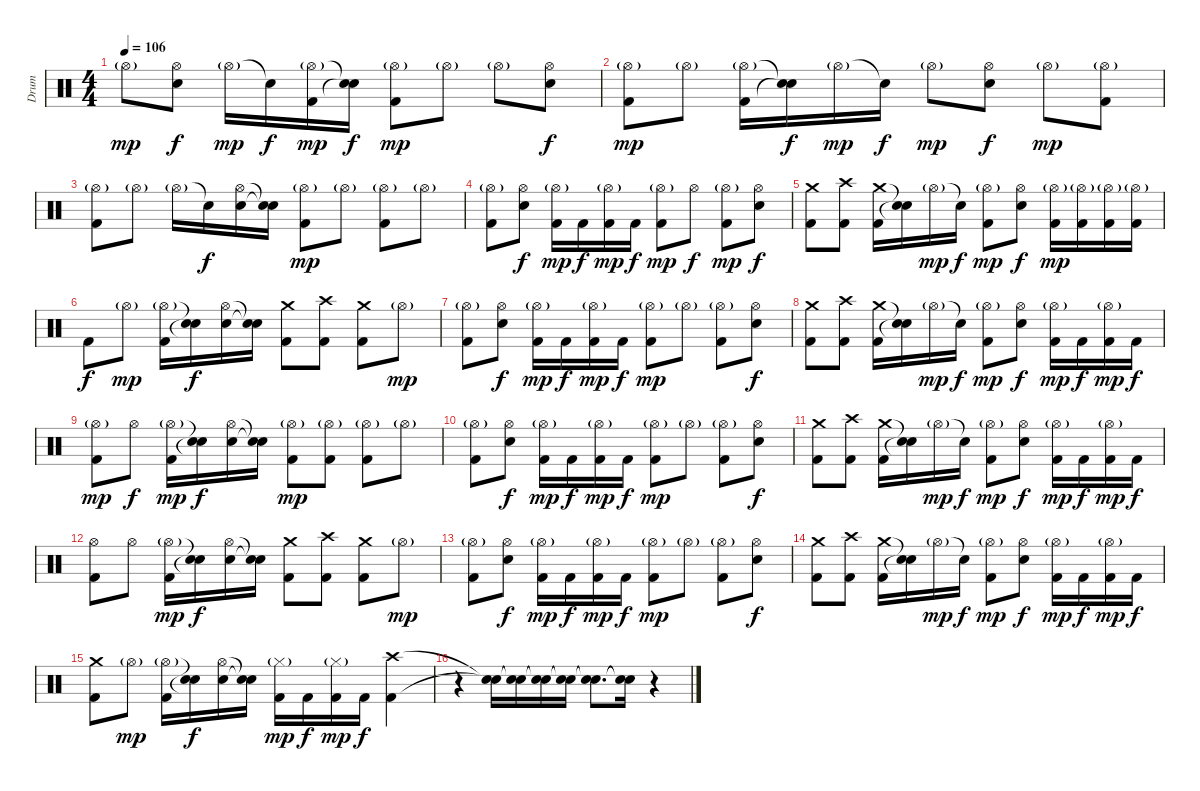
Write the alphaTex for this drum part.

\track ("Drum" "Drum") {instrument percussion}
\staff {score}
\articulation defaults
\ts (4 4)
\tempo 106
\clef neutral
\ks c "Hi-Hat (open)"{g}.8{dy mp}
("Hi-Hat (open)" "Electric Snare (hit)").8{dy f} "Hi-Hat (open)"{g}.16{dy mp} "Snare (hit)"{t}.16{dy f} ("Hi-Hat (open)"{g} "Kick (hit) 2").16{dy mp} ("Snare (hit)"{t} "Snare (hit)"{t}).16{dy f} ("Hi-Hat (open)"{g} "Kick (hit) 2").8{dy mp} "Hi-Hat (open)"{g}.8 "Hi-Hat (open)"{g}.8 ("Hi-Hat (open)" "Electric Snare (hit)").8{dy f} |
("Hi-Hat (open)"{g} "Kick (hit) 2").8{dy mp} "Hi-Hat (open)"{g}.8 ("Hi-Hat (open)"{g} "Kick (hit) 2").16 ("Snare (hit)"{t} "Snare (hit)"{t}).16{dy f} "Hi-Hat (open)"{g}.16{dy mp} "Snare (hit)"{t}.16{dy f} "Hi-Hat (open)"{g}.8{dy mp} ("Hi-Hat (open)" "Electric Snare (hit)").8{dy f} "Hi-Hat (open)"{g}.8{dy mp} ("Hi-Hat (open)"{g} "Kick (hit) 2").8 |
("Hi-Hat (open)"{g} "Kick (hit) 2").8 "Hi-Hat (open)"{g}.8 "Hi-Hat (open)"{g}.16 "Snare (hit)"{t}.16{dy f} ("Hi-Hat (open)" "Electric Snare (hit)").16 ("Snare (hit)"{t} "Snare (hit)"{t}).16 ("Hi-Hat (open)"{g} "Kick (hit) 2").8{dy mp} "Hi-Hat (open)"{g}.8 ("Hi-Hat (open)"{g} "Kick (hit) 2").8 "Hi-Hat (open)"{g}.8 |
("Hi-Hat (open)"{g} "Kick (hit) 2").8 ("Hi-Hat (open)" "Electric Snare (hit)").8{dy f} ("Hi-Hat (open)"{g} "Kick (hit) 2").16{dy mp} "Kick (hit) 2".16{dy f} ("Hi-Hat (open)"{g} "Kick (hit) 2").16{dy mp} "Kick (hit) 2".16{dy f} ("Hi-Hat (open)"{g} "Kick (hit) 2").8{dy mp} "Hi-Hat (open)".8{dy f} ("Hi-Hat (open)"{g} "Kick (hit) 2").8{dy mp} ("Hi-Hat (open)" "Electric Snare (hit)").8{dy f} |
("Crash medium (hit)" "Kick (hit) 2").8 ("Crash high (hit)" "Kick (hit) 2").8 ("Crash medium (hit)" "Kick (hit) 2").16 ("Snare (hit)"{t} "Snare (hit)"{t}).16 "Hi-Hat (open)"{g}.16{dy mp} "Snare (hit)"{t}.16{dy f} ("Hi-Hat (open)"{g} "Kick (hit) 2").8{dy mp} ("Hi-Hat (open)" "Electric Snare (hit)").8{dy f} ("Hi-Hat (open)"{g} "Kick (hit) 2").16{dy mp} ("Hi-Hat (open)"{g} "Kick (hit) 2").16 ("Hi-Hat (open)"{g} "Kick (hit) 2").16 ("Hi-Hat (open)"{g} "Kick (hit) 2").16 |
"Kick (hit) 2".8{dy f} "Hi-Hat (open)"{g}.8{dy mp} ("Hi-Hat (open)"{g} "Kick (hit) 2").16 ("Snare (hit)"{t} "Snare (hit)"{t}).16{dy f} ("Hi-Hat (open)" "Electric Snare (hit)").16 ("Snare (hit)"{t} "Snare (hit)"{t}).16 ("Crash medium (hit)" "Kick (hit) 2").8 ("Crash high (hit)" "Kick (hit) 2").8 ("Crash medium (hit)" "Kick (hit) 2").8 "Hi-Hat (open)"{g}.8{dy mp} |
("Hi-Hat (open)"{g} "Kick (hit) 2").8 ("Hi-Hat (open)" "Electric Snare (hit)").8{dy f} ("Hi-Hat (open)"{g} "Kick (hit) 2").16{dy mp} "Kick (hit) 2".16{dy f} ("Hi-Hat (open)"{g} "Kick (hit) 2").16{dy mp} "Kick (hit) 2".16{dy f} ("Hi-Hat (open)"{g} "Kick (hit) 2").8{dy mp} "Hi-Hat (open)"{g}.8 ("Hi-Hat (open)"{g} "Kick (hit) 2").8 ("Hi-Hat (open)" "Electric Snare (hit)").8{dy f} |
("Crash medium (hit)" "Kick (hit) 2").8 ("Crash high (hit)" "Kick (hit) 2").8 ("Crash medium (hit)" "Kick (hit) 2").16 ("Snare (hit)"{t} "Snare (hit)"{t}).16 "Hi-Hat (open)"{g}.16{dy mp} "Snare (hit)"{t}.16{dy f} ("Hi-Hat (open)"{g} "Kick (hit) 2").8{dy mp} ("Hi-Hat (open)" "Electric Snare (hit)").8{dy f} ("Hi-Hat (open)"{g} "Kick (hit) 2").16{dy mp} "Kick (hit) 2".16{dy f} ("Hi-Hat (open)"{g} "Kick (hit) 2").16{dy mp} "Kick (hit) 2".16{dy f} |
("Hi-Hat (open)"{g} "Kick (hit) 2").8{dy mp} "Hi-Hat (open)".8{dy f} ("Hi-Hat (open)"{g} "Kick (hit) 2").16{dy mp} ("Snare (hit)"{t} "Snare (hit)"{t}).16{dy f} ("Hi-Hat (open)" "Electric Snare (hit)").16 ("Snare (hit)"{t} "Snare (hit)"{t}).16 ("Hi-Hat (open)"{g} "Kick (hit) 2").8{dy mp} ("Hi-Hat (open)"{g} "Kick (hit) 2").8 ("Hi-Hat (open)"{g} "Kick (hit) 2").8 "Hi-Hat (open)"{g}.8 |
("Hi-Hat (open)"{g} "Kick (hit) 2").8 ("Hi-Hat (open)" "Electric Snare (hit)").8{dy f} ("Hi-Hat (open)"{g} "Kick (hit) 2").16{dy mp} "Kick (hit) 2".16{dy f} ("Hi-Hat (open)"{g} "Kick (hit) 2").16{dy mp} "Kick (hit) 2".16{dy f} ("Hi-Hat (open)"{g} "Kick (hit) 2").8{dy mp} "Hi-Hat (open)"{g}.8 ("Hi-Hat (open)"{g} "Kick (hit) 2").8 ("Hi-Hat (open)" "Electric Snare (hit)").8{dy f} |
("Crash medium (hit)" "Kick (hit) 2").8 ("Crash high (hit)" "Kick (hit) 2").8 ("Crash medium (hit)" "Kick (hit) 2").16 ("Snare (hit)"{t} "Snare (hit)"{t}).16 "Hi-Hat (open)"{g}.16{dy mp} "Snare (hit)"{t}.16{dy f} ("Hi-Hat (open)"{g} "Kick (hit) 2").8{dy mp} ("Hi-Hat (open)" "Electric Snare (hit)").8{dy f} ("Hi-Hat (open)"{g} "Kick (hit) 2").16{dy mp} "Kick (hit) 2".16{dy f} ("Hi-Hat (open)"{g} "Kick (hit) 2").16{dy mp} "Kick (hit) 2".16{dy f} |
("Hi-Hat (open)" "Kick (hit) 2").8 "Hi-Hat (open)".8 ("Hi-Hat (open)"{g} "Kick (hit) 2").16{dy mp} ("Snare (hit)"{t} "Snare (hit)"{t}).16{dy f} ("Hi-Hat (open)" "Electric Snare (hit)").16 ("Snare (hit)"{t} "Snare (hit)"{t}).16 ("Crash medium (hit)" "Kick (hit) 2").8 ("Crash high (hit)" "Kick (hit) 2").8 ("Crash medium (hit)" "Kick (hit) 2").8 "Hi-Hat (open)"{g}.8{dy mp} |
("Hi-Hat (open)"{g} "Kick (hit) 2").8 ("Hi-Hat (open)" "Electric Snare (hit)").8{dy f} ("Hi-Hat (open)"{g} "Kick (hit) 2").16{dy mp} "Kick (hit) 2".16{dy f} ("Hi-Hat (open)"{g} "Kick (hit) 2").16{dy mp} "Kick (hit) 2".16{dy f} ("Hi-Hat (open)"{g} "Kick (hit) 2").8{dy mp} "Hi-Hat (open)"{g}.8 ("Hi-Hat (open)"{g} "Kick (hit) 2").8 ("Hi-Hat (open)" "Electric Snare (hit)").8{dy f} |
("Crash medium (hit)" "Kick (hit) 2").8 ("Crash high (hit)" "Kick (hit) 2").8 ("Crash medium (hit)" "Kick (hit) 2").16 ("Snare (hit)"{t} "Snare (hit)"{t}).16 "Hi-Hat (open)"{g}.16{dy mp} "Snare (hit)"{t}.16{dy f} ("Hi-Hat (open)"{g} "Kick (hit) 2").8{dy mp} ("Hi-Hat (open)" "Electric Snare (hit)").8{dy f} ("Hi-Hat (open)"{g} "Kick (hit) 2").16{dy mp} "Kick (hit) 2".16{dy f} ("Hi-Hat (open)"{g} "Kick (hit) 2").16{dy mp} "Kick (hit) 2".16{dy f} |
("Crash medium (hit)" "Kick (hit) 2").8 "Hi-Hat (open)"{g}.8{dy mp} ("Hi-Hat (open)"{g} "Kick (hit) 2").16 ("Snare (hit)"{t} "Snare (hit)"{t}).16{dy f} ("Hi-Hat (open)" "Electric Snare (hit)").16 ("Snare (hit)"{t} "Snare (hit)"{t}).16 ("Hi-Hat (closed)"{g} "Kick (hit) 2").16{dy mp} "Kick (hit) 2".16{dy f} ("Hi-Hat (closed)"{g} "Kick (hit) 2").16{dy mp} "Kick (hit) 2".16{dy f} ("Crash high (hit)" "Kick (hit) 2").4 |
r.4 ("Snare (hit)"{t} "Snare (hit)"{t}).16 ("Snare (hit)"{t} "Snare (hit)"{t}).16 ("Snare (hit)"{t} "Snare (hit)"{t}).16 ("Snare (hit)"{t} "Snare (hit)"{t}).16 ("Snare (hit)"{t} "Snare (hit)"{t}).8{d} ("Snare (hit)"{t} "Snare (hit)"{t}).16 r.4
